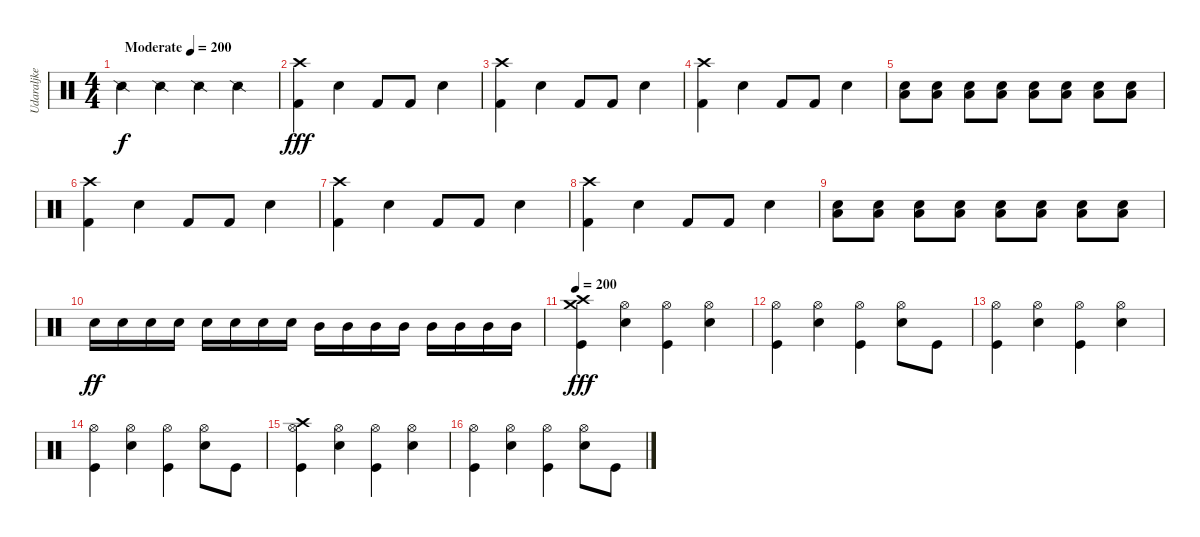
\track ("Udaraljke" "Udaraljke") {instrument percussion}
\staff {score}
\articulation defaults
\ts (4 4)
\tempo (200 "Moderate")
\tempo 110
\tempo (200 "Moderate")
\clef neutral
\ks c "Snare (side stick) 2".4{dy f} "Snare (side stick) 2".4 "Snare (side stick) 2".4 "Snare (side stick) 2".4
|
("Kick (hit) 2" "Crash high (hit)").4{dy fff} "Snare (hit) 2".4 "Kick (hit) 2".8 "Kick (hit) 2".8 "Snare (hit) 2".4 |
("Kick (hit) 2" "Crash high (hit)").4 "Snare (hit) 2".4 "Kick (hit) 2".8 "Kick (hit) 2".8 "Snare (hit) 2".4 |
("Kick (hit) 2" "Crash high (hit)").4 "Snare (hit) 2".4 "Kick (hit) 2".8 "Kick (hit) 2".8 "Snare (hit) 2".4 |
("Snare (hit) 2" "Low Floor Tom (hit)").8 ("Snare (hit) 2" "Low Floor Tom (hit)").8 ("Snare (hit) 2" "Low Floor Tom (hit)").8 ("Snare (hit) 2" "Low Floor Tom (hit)").8 ("Low Floor Tom (hit)" "Electric Snare (hit)").8 ("Snare (hit) 2" "Low Floor Tom (hit)").8 ("Low Floor Tom (hit)" "Electric Snare (hit)").8 ("Snare (hit) 2" "Low Floor Tom (hit)").8 |
("Kick (hit) 2" "Crash high (hit)").4 "Snare (hit) 2".4 "Kick (hit) 2".8 "Kick (hit) 2".8 "Snare (hit) 2".4 |
("Kick (hit) 2" "Crash high (hit)").4 "Snare (hit) 2".4 "Kick (hit) 2".8 "Kick (hit) 2".8 "Snare (hit) 2".4 |
("Kick (hit) 2" "Crash high (hit)").4 "Snare (hit) 2".4 "Kick (hit) 2".8 "Kick (hit) 2".8 "Snare (hit) 2".4 |
("Snare (hit) 2" "Low Floor Tom (hit)").8 ("Snare (hit) 2" "Low Floor Tom (hit)").8 ("Snare (hit) 2" "Low Floor Tom (hit)").8 ("Snare (hit) 2" "Low Floor Tom (hit)").8 ("Low Floor Tom (hit)" "Electric Snare (hit)").8 ("Snare (hit) 2" "Low Floor Tom (hit)").8 ("Low Floor Tom (hit)" "Electric Snare (hit)").8 ("Snare (hit) 2" "Low Floor Tom (hit)").8 |
"Snare (hit) 2".16{dy ff} "Snare (hit) 2".16 "Snare (hit) 2".16 "Snare (hit) 2".16 "Snare (hit) 2".16 "Snare (hit) 2".16 "Snare (hit) 2".16 "Snare (hit) 2".16 "Mid Tom (hit)".16 "Mid Tom (hit)".16 "Mid Tom (hit)".16 "Mid Tom (hit)".16 "Mid Tom (hit)".16 "Mid Tom (hit)".16 "Mid Tom (hit)".16 "Mid Tom (hit)".16 |
\tempo 200
("Crash high (hit)" "Crash medium (hit)" "Kick (hit)").4{dy fff} ("Hi-Hat (open)" "Electric Snare (hit)").4 ("Hi-Hat (open)" "Kick (hit)").4 ("Hi-Hat (open)" "Electric Snare (hit)").4 |
("Hi-Hat (open)" "Kick (hit)").4 ("Hi-Hat (open)" "Electric Snare (hit)").4 ("Hi-Hat (open)" "Kick (hit)").4 ("Hi-Hat (open)" "Electric Snare (hit)").8 "Kick (hit)".8 |
("Hi-Hat (open)" "Kick (hit)").4 ("Hi-Hat (open)" "Electric Snare (hit)").4 ("Hi-Hat (open)" "Kick (hit)").4 ("Hi-Hat (open)" "Electric Snare (hit)").4 |
("Hi-Hat (open)" "Kick (hit)").4 ("Hi-Hat (open)" "Electric Snare (hit)").4 ("Hi-Hat (open)" "Kick (hit)").4 ("Hi-Hat (open)" "Electric Snare (hit)").8 "Kick (hit)".8 |
("Crash high (hit)" "Hi-Hat (open)" "Kick (hit)").4 ("Hi-Hat (open)" "Electric Snare (hit)").4 ("Hi-Hat (open)" "Kick (hit)").4 ("Hi-Hat (open)" "Electric Snare (hit)").4 |
("Hi-Hat (open)" "Kick (hit)").4 ("Hi-Hat (open)" "Electric Snare (hit)").4 ("Hi-Hat (open)" "Kick (hit)").4 ("Hi-Hat (open)" "Electric Snare (hit)").8 "Kick (hit)".8
